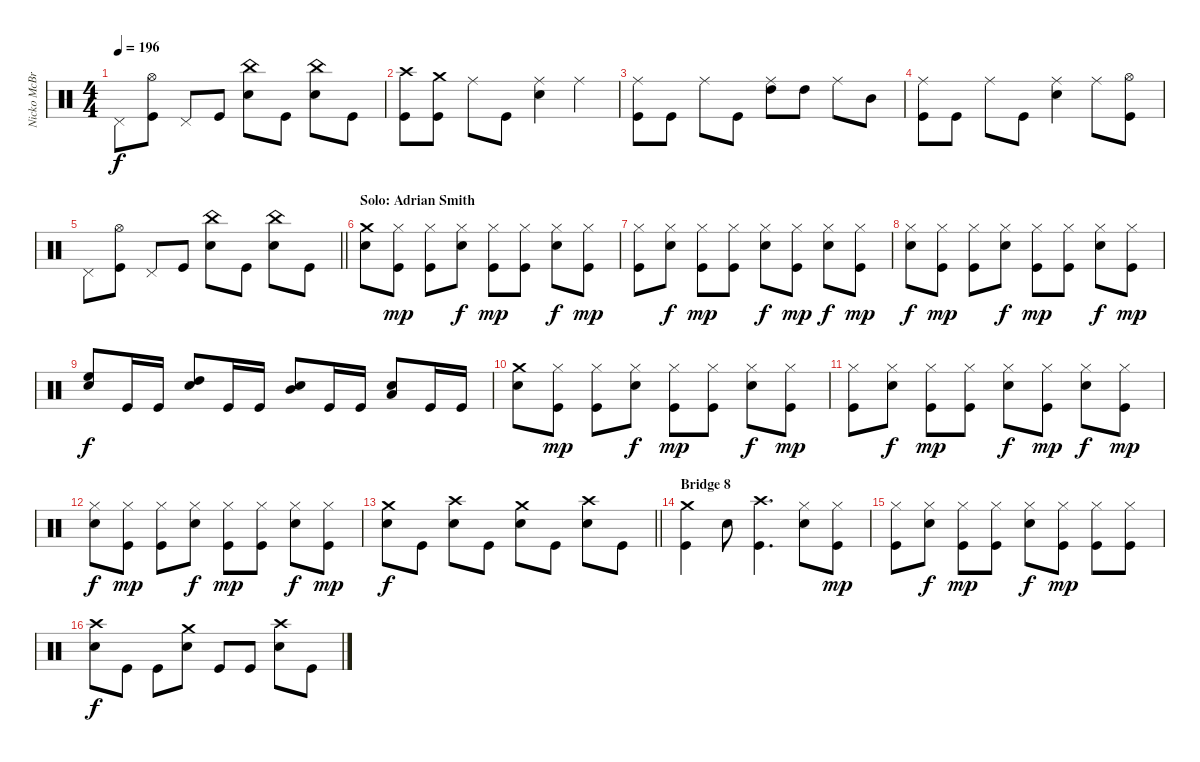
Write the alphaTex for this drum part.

\track ("Nicko McBrain" "Nicko McBr") {instrument percussion}
\staff {score}
\articulation defaults
\ts (4 4)
\tempo 196
\clef neutral
\ks c "Pedal Hi-Hat (hit)".8{dy f}
("Hi-Hat (open)" "Kick (hit)").8 "Pedal Hi-Hat (hit)".8 "Kick (hit)".8 ("China (hit)" "Electric Snare (hit)").8 "Kick (hit)".8 ("China (hit)" "Electric Snare (hit)").8 "Kick (hit)".8 |
("Crash high (hit)" "Kick (hit)").8 ("Crash medium (hit)" "Kick (hit)").8 "Ride (middle)".8 "Kick (hit)".8 ("Ride (middle)" "Electric Snare (hit)").4 "Ride (middle)".4 |
("Ride (middle)" "Kick (hit)").8 "Kick (hit)".8 "Ride (middle)".8 "Kick (hit)".8 ("Ride (middle)" "High Tom (hit)").8 "High Tom (hit)".8 "Ride (middle)".8 "Mid Tom (hit)".8 |
("Ride (middle)" "Kick (hit)").8 "Kick (hit)".8 "Ride (middle)".8 "Kick (hit)".8 ("Ride (middle)" "Electric Snare (hit)").4 "Ride (middle)".8 ("Hi-Hat (open)" "Kick (hit)").8 |
\barLineRight lightlight "Pedal Hi-Hat (hit)".8
("Hi-Hat (open)" "Kick (hit)").8 "Pedal Hi-Hat (hit)".8 "Kick (hit)".8 ("China (hit)" "Electric Snare (hit)").8 "Kick (hit)".8 ("China (hit)" "Electric Snare (hit)").8 "Kick (hit)".8 |
\section ("" "Solo: Adrian Smith")
("Crash medium (hit)" "Electric Snare (hit)").8 ("Hi-Hat (closed)" "Kick (hit)").8{dy mp} ("Hi-Hat (closed)" "Kick (hit)").8 ("Hi-Hat (closed)" "Electric Snare (hit)").8{dy f} ("Hi-Hat (closed)" "Kick (hit)").8{dy mp} ("Hi-Hat (closed)" "Kick (hit)").8 ("Hi-Hat (closed)" "Electric Snare (hit)").8{dy f} ("Hi-Hat (closed)" "Kick (hit)").8{dy mp} |
("Hi-Hat (closed)" "Kick (hit)").8 ("Hi-Hat (closed)" "Electric Snare (hit)").8{dy f} ("Hi-Hat (closed)" "Kick (hit)").8{dy mp} ("Hi-Hat (closed)" "Kick (hit)").8 ("Hi-Hat (closed)" "Electric Snare (hit)").8{dy f} ("Hi-Hat (closed)" "Kick (hit)").8{dy mp} ("Hi-Hat (closed)" "Electric Snare (hit)").8{dy f} ("Hi-Hat (closed)" "Kick (hit)").8{dy mp} |
("Hi-Hat (closed)" "Electric Snare (hit)").8{dy f} ("Hi-Hat (closed)" "Kick (hit)").8{dy mp} ("Hi-Hat (closed)" "Kick (hit)").8 ("Hi-Hat (closed)" "Electric Snare (hit)").8{dy f} ("Hi-Hat (closed)" "Kick (hit)").8{dy mp} ("Hi-Hat (closed)" "Kick (hit)").8 ("Hi-Hat (closed)" "Electric Snare (hit)").8{dy f} ("Hi-Hat (closed)" "Kick (hit)").8{dy mp} |
("High Floor Tom (hit)" "Electric Snare (hit)").8{dy f} "Kick (hit)".16 "Kick (hit)".16 ("High Tom (hit)" "Electric Snare (hit)").8 "Kick (hit)".16 "Kick (hit)".16 ("Electric Snare (hit)" "Mid Tom (hit)").8 "Kick (hit)".16 "Kick (hit)".16 ("Electric Snare (hit)" "Low Tom (hit)").8 "Kick (hit)".16 "Kick (hit)".16 |
("Crash medium (hit)" "Electric Snare (hit)").8 ("Hi-Hat (closed)" "Kick (hit)").8{dy mp} ("Hi-Hat (closed)" "Kick (hit)").8 ("Hi-Hat (closed)" "Electric Snare (hit)").8{dy f} ("Hi-Hat (closed)" "Kick (hit)").8{dy mp} ("Hi-Hat (closed)" "Kick (hit)").8 ("Hi-Hat (closed)" "Electric Snare (hit)").8{dy f} ("Hi-Hat (closed)" "Kick (hit)").8{dy mp} |
("Hi-Hat (closed)" "Kick (hit)").8 ("Hi-Hat (closed)" "Electric Snare (hit)").8{dy f} ("Hi-Hat (closed)" "Kick (hit)").8{dy mp} ("Hi-Hat (closed)" "Kick (hit)").8 ("Hi-Hat (closed)" "Electric Snare (hit)").8{dy f} ("Hi-Hat (closed)" "Kick (hit)").8{dy mp} ("Hi-Hat (closed)" "Electric Snare (hit)").8{dy f} ("Hi-Hat (closed)" "Kick (hit)").8{dy mp} |
("Hi-Hat (closed)" "Electric Snare (hit)").8{dy f} ("Hi-Hat (closed)" "Kick (hit)").8{dy mp} ("Hi-Hat (closed)" "Kick (hit)").8 ("Hi-Hat (closed)" "Electric Snare (hit)").8{dy f} ("Hi-Hat (closed)" "Kick (hit)").8{dy mp} ("Hi-Hat (closed)" "Kick (hit)").8 ("Hi-Hat (closed)" "Electric Snare (hit)").8{dy f} ("Hi-Hat (closed)" "Kick (hit)").8{dy mp} |
\barLineRight lightlight
("Crash medium (hit)" "Electric Snare (hit)").8{dy f} "Kick (hit)".8 ("Crash high (hit)" "Electric Snare (hit)").8 "Kick (hit)".8 ("Crash medium (hit)" "Electric Snare (hit)").8 "Kick (hit)".8 ("Crash high (hit)" "Electric Snare (hit)").8 "Kick (hit)".8 |
\section ("" "Bridge 8")
("Crash medium (hit)" "Kick (hit)").4 "Electric Snare (hit)".8 ("Crash high (hit)" "Kick (hit)").4{d} ("Hi-Hat (closed)" "Electric Snare (hit)").8 ("Hi-Hat (closed)" "Kick (hit)").8{dy mp} |
("Hi-Hat (closed)" "Kick (hit)").8 ("Hi-Hat (closed)" "Electric Snare (hit)").8{dy f} ("Hi-Hat (closed)" "Kick (hit)").8{dy mp} ("Hi-Hat (closed)" "Kick (hit)").8 ("Hi-Hat (closed)" "Electric Snare (hit)").8{dy f} ("Hi-Hat (closed)" "Kick (hit)").8{dy mp} ("Hi-Hat (closed)" "Kick (hit)").8 ("Hi-Hat (closed)" "Kick (hit)").8 |
("Crash high (hit)" "Electric Snare (hit)").8{dy f} "Kick (hit)".8 "Kick (hit)".8 ("Crash medium (hit)" "Electric Snare (hit)").8 "Kick (hit)".8 "Kick (hit)".8 ("Crash high (hit)" "Electric Snare (hit)").8 "Kick (hit)".8
